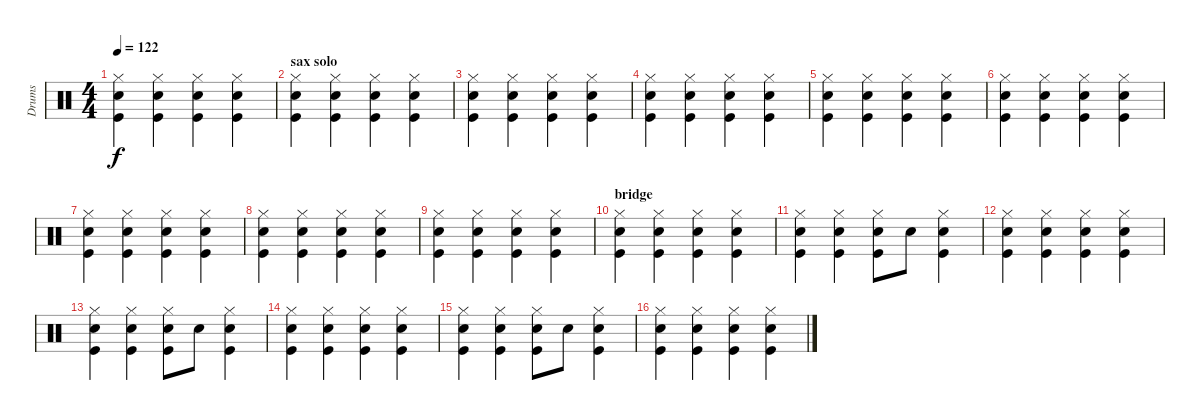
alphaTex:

\track ("Drums" "Drums") {instrument percussion}
\staff {score}
\articulation defaults
\ts (4 4)
\tempo 122
\clef neutral
\ks c
("Hi-Hat (closed)" "Electric Snare (hit)" "Kick (hit)").4{dy f} ("Hi-Hat (closed)" "Electric Snare (hit)" "Kick (hit)").4 ("Hi-Hat (closed)" "Electric Snare (hit)" "Kick (hit)").4 ("Hi-Hat (closed)" "Electric Snare (hit)" "Kick (hit)").4 |
\section ("" "sax solo")
("Hi-Hat (closed)" "Electric Snare (hit)" "Kick (hit)").4 ("Hi-Hat (closed)" "Electric Snare (hit)" "Kick (hit)").4 ("Hi-Hat (closed)" "Electric Snare (hit)" "Kick (hit)").4 ("Hi-Hat (closed)" "Electric Snare (hit)" "Kick (hit)").4 |
("Hi-Hat (closed)" "Electric Snare (hit)" "Kick (hit)").4 ("Hi-Hat (closed)" "Electric Snare (hit)" "Kick (hit)").4 ("Hi-Hat (closed)" "Electric Snare (hit)" "Kick (hit)").4 ("Hi-Hat (closed)" "Electric Snare (hit)" "Kick (hit)").4 |
("Hi-Hat (closed)" "Electric Snare (hit)" "Kick (hit)").4 ("Hi-Hat (closed)" "Electric Snare (hit)" "Kick (hit)").4 ("Hi-Hat (closed)" "Electric Snare (hit)" "Kick (hit)").4 ("Hi-Hat (closed)" "Electric Snare (hit)" "Kick (hit)").4 |
("Hi-Hat (closed)" "Electric Snare (hit)" "Kick (hit)").4 ("Hi-Hat (closed)" "Electric Snare (hit)" "Kick (hit)").4 ("Hi-Hat (closed)" "Electric Snare (hit)" "Kick (hit)").4 ("Hi-Hat (closed)" "Electric Snare (hit)" "Kick (hit)").4 |
("Hi-Hat (closed)" "Electric Snare (hit)" "Kick (hit)").4 ("Hi-Hat (closed)" "Electric Snare (hit)" "Kick (hit)").4 ("Hi-Hat (closed)" "Electric Snare (hit)" "Kick (hit)").4 ("Hi-Hat (closed)" "Electric Snare (hit)" "Kick (hit)").4 |
("Hi-Hat (closed)" "Electric Snare (hit)" "Kick (hit)").4 ("Hi-Hat (closed)" "Electric Snare (hit)" "Kick (hit)").4 ("Hi-Hat (closed)" "Electric Snare (hit)" "Kick (hit)").4 ("Hi-Hat (closed)" "Electric Snare (hit)" "Kick (hit)").4 |
("Hi-Hat (closed)" "Electric Snare (hit)" "Kick (hit)").4 ("Hi-Hat (closed)" "Electric Snare (hit)" "Kick (hit)").4 ("Hi-Hat (closed)" "Electric Snare (hit)" "Kick (hit)").4 ("Hi-Hat (closed)" "Electric Snare (hit)" "Kick (hit)").4 |
("Hi-Hat (closed)" "Electric Snare (hit)" "Kick (hit)").4 ("Hi-Hat (closed)" "Electric Snare (hit)" "Kick (hit)").4 ("Hi-Hat (closed)" "Electric Snare (hit)" "Kick (hit)").4 ("Hi-Hat (closed)" "Electric Snare (hit)" "Kick (hit)").4 |
\section ("" "bridge")
("Hi-Hat (closed)" "Electric Snare (hit)" "Kick (hit)").4 ("Hi-Hat (closed)" "Electric Snare (hit)" "Kick (hit)").4 ("Hi-Hat (closed)" "Electric Snare (hit)" "Kick (hit)").4 ("Hi-Hat (closed)" "Electric Snare (hit)" "Kick (hit)").4 |
("Hi-Hat (closed)" "Electric Snare (hit)" "Kick (hit)").4 ("Hi-Hat (closed)" "Electric Snare (hit)" "Kick (hit)").4 ("Hi-Hat (closed)" "Electric Snare (hit)" "Kick (hit)").8 "Electric Snare (hit)".8 ("Hi-Hat (closed)" "Electric Snare (hit)" "Kick (hit)").4 |
("Hi-Hat (closed)" "Electric Snare (hit)" "Kick (hit)").4 ("Hi-Hat (closed)" "Electric Snare (hit)" "Kick (hit)").4 ("Hi-Hat (closed)" "Electric Snare (hit)" "Kick (hit)").4 ("Hi-Hat (closed)" "Electric Snare (hit)" "Kick (hit)").4 |
("Hi-Hat (closed)" "Electric Snare (hit)" "Kick (hit)").4 ("Hi-Hat (closed)" "Electric Snare (hit)" "Kick (hit)").4 ("Hi-Hat (closed)" "Electric Snare (hit)" "Kick (hit)").8 "Electric Snare (hit)".8 ("Hi-Hat (closed)" "Electric Snare (hit)" "Kick (hit)").4 |
("Hi-Hat (closed)" "Electric Snare (hit)" "Kick (hit)").4 ("Hi-Hat (closed)" "Electric Snare (hit)" "Kick (hit)").4 ("Hi-Hat (closed)" "Electric Snare (hit)" "Kick (hit)").4 ("Hi-Hat (closed)" "Electric Snare (hit)" "Kick (hit)").4 |
("Hi-Hat (closed)" "Electric Snare (hit)" "Kick (hit)").4 ("Hi-Hat (closed)" "Electric Snare (hit)" "Kick (hit)").4 ("Hi-Hat (closed)" "Electric Snare (hit)" "Kick (hit)").8 "Electric Snare (hit)".8 ("Hi-Hat (closed)" "Electric Snare (hit)" "Kick (hit)").4 |
("Hi-Hat (closed)" "Electric Snare (hit)" "Kick (hit)").4 ("Hi-Hat (closed)" "Electric Snare (hit)" "Kick (hit)").4 ("Hi-Hat (closed)" "Electric Snare (hit)" "Kick (hit)").4 ("Hi-Hat (closed)" "Electric Snare (hit)" "Kick (hit)").4
